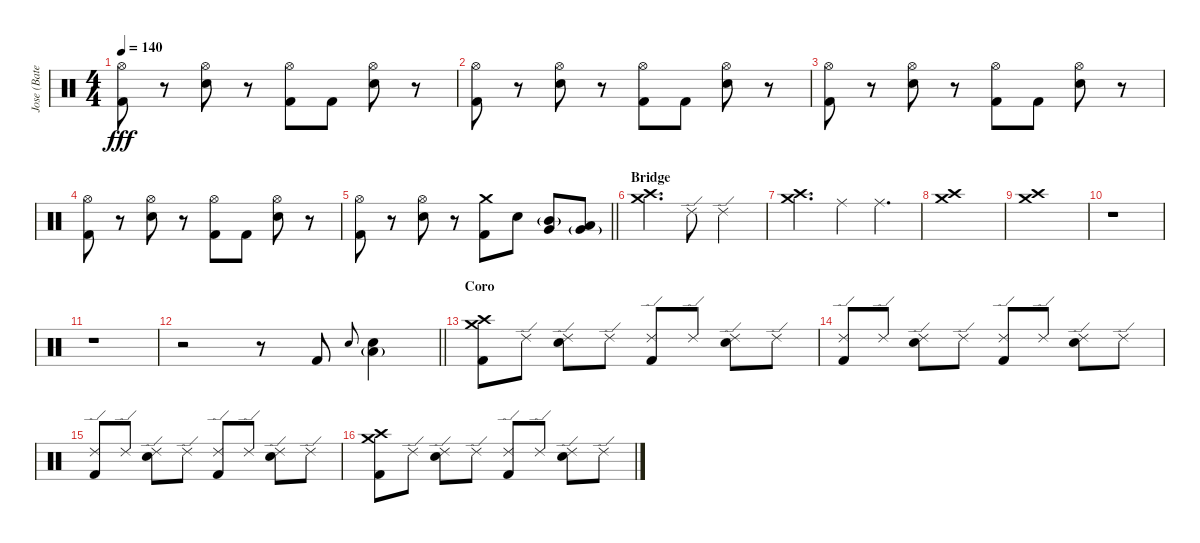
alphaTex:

\track ("Jose (Bateria)" "Jose (Bate") {instrument percussion}
\staff {score}
\articulation defaults
\ts (4 4)
\tempo 140
\clef neutral
\ks aminor
("Hi-Hat (open)" "Kick (hit) 2").8{dy fff} r.8 ("Hi-Hat (open)" "Snare (hit) 2").8 r.8 ("Hi-Hat (open)" "Kick (hit) 2").8 "Kick (hit) 2".8 ("Hi-Hat (open)" "Snare (hit) 2").8 r.8 |
("Hi-Hat (open)" "Kick (hit) 2").8 r.8 ("Hi-Hat (open)" "Snare (hit) 2").8 r.8 ("Hi-Hat (open)" "Kick (hit) 2").8 "Kick (hit) 2".8 ("Hi-Hat (open)" "Snare (hit) 2").8 r.8 |
("Hi-Hat (open)" "Kick (hit) 2").8 r.8 ("Hi-Hat (open)" "Snare (hit) 2").8 r.8 ("Hi-Hat (open)" "Kick (hit) 2").8 "Kick (hit) 2".8 ("Hi-Hat (open)" "Snare (hit) 2").8 r.8 |
("Hi-Hat (open)" "Kick (hit) 2").8 r.8 ("Hi-Hat (open)" "Snare (hit) 2").8 r.8 ("Hi-Hat (open)" "Kick (hit) 2").8 "Kick (hit) 2".8 ("Hi-Hat (open)" "Snare (hit) 2").8 r.8 |
\barLineRight lightlight
("Hi-Hat (open)" "Kick (hit) 2").8 r.8 ("Hi-Hat (open)" "Snare (hit) 2").8 r.8 ("Crash medium (hit)" "Kick (hit) 2").8 "Snare (hit) 2".8 ("Very Low Tom (hit)" "Mid Tom (hit)"{g}).8 ("Low Floor Tom (hit)" "Very Low Tom (hit)"{g}).8 |
\section ("" "Bridge")
("Crash medium (hit)" "Crash high (hit)").4{d} "Ride (edge) 2".8 "Ride (edge) 2".2 |
("Crash medium (hit)" "Crash high (hit)").4{d} "Ride (middle)".4 "Ride (middle)".4{d} |
("Crash medium (hit)" "Crash high (hit)").1 |
("Crash medium (hit)" "Crash high (hit)").1 |
r.1 |
r.1 |
\barLineRight lightlight
r.2 r.8 "Kick (hit) 2".8 "Snare (hit) 2".8{gr onbeat} ("Snare (hit) 2" "Low Floor Tom (hit)"{g}).4 |
\section ("" "Coro")
("Crash high (hit)" "Crash medium (hit)" "Kick (hit) 2").8 "Ride (edge) 2".8 ("Ride (edge) 2" "Snare (hit) 2").8 "Ride (edge) 2".8 ("Ride (edge) 2" "Kick (hit) 2").8 "Ride (edge) 2".8 ("Ride (edge) 2" "Snare (hit) 2").8 "Ride (edge) 2".8 |
("Ride (edge) 2" "Kick (hit) 2").8 "Ride (edge) 2".8 ("Ride (edge) 2" "Snare (hit) 2").8 "Ride (edge) 2".8 ("Ride (edge) 2" "Kick (hit) 2").8 "Ride (edge) 2".8 ("Ride (edge) 2" "Snare (hit) 2").8 "Ride (edge) 2".8 |
("Ride (edge) 2" "Kick (hit) 2").8 "Ride (edge) 2".8 ("Ride (edge) 2" "Snare (hit) 2").8 "Ride (edge) 2".8 ("Ride (edge) 2" "Kick (hit) 2").8 "Ride (edge) 2".8 ("Ride (edge) 2" "Snare (hit) 2").8 "Ride (edge) 2".8 |
("Crash high (hit)" "Crash medium (hit)" "Kick (hit) 2").8 "Ride (edge) 2".8 ("Ride (edge) 2" "Snare (hit) 2").8 "Ride (edge) 2".8 ("Ride (edge) 2" "Kick (hit) 2").8 "Ride (edge) 2".8 ("Ride (edge) 2" "Snare (hit) 2").8 "Ride (edge) 2".8
